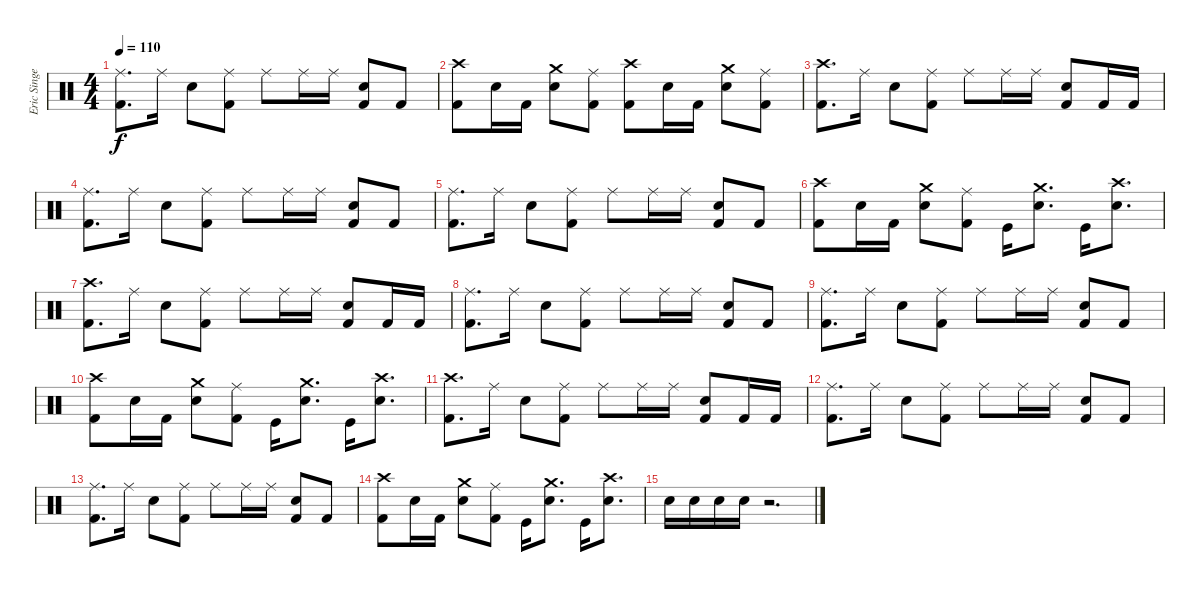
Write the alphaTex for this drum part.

\track ("Eric Singer" "Eric Singe") {instrument percussion}
\staff {score}
\articulation defaults
\ts (4 4)
\tempo 110
\clef neutral
\ks c
("Ride (middle)" "Kick (hit) 2").8{d dy f} "Ride (middle)".16 "Electric Snare (hit)".8 ("Ride (middle)" "Kick (hit) 2").8 "Ride (middle)".8 "Ride (middle)".16 "Ride (middle)".16 ("Electric Snare (hit)" "Kick (hit) 2").8 "Kick (hit) 2".8 |
("Crash high (hit)" "Kick (hit) 2").8 "Snare (hit) 2".16 "Kick (hit) 2".16 ("Crash medium (hit)" "Snare (hit) 2").8 ("Ride (middle)" "Kick (hit) 2").8 ("Crash high (hit)" "Kick (hit) 2").8 "Snare (hit) 2".16 "Kick (hit) 2".16 ("Crash medium (hit)" "Snare (hit) 2").8 ("Ride (middle)" "Kick (hit) 2").8 |
("Crash high (hit)" "Kick (hit) 2").8{d} "Ride (middle)".16 "Electric Snare (hit)".8 ("Ride (middle)" "Kick (hit) 2").8 "Ride (middle)".8 "Ride (middle)".16 "Ride (middle)".16 ("Electric Snare (hit)" "Kick (hit) 2").8 "Kick (hit) 2".16 "Kick (hit) 2".16 |
("Ride (middle)" "Kick (hit) 2").8{d} "Ride (middle)".16 "Electric Snare (hit)".8 ("Ride (middle)" "Kick (hit) 2").8 "Ride (middle)".8 "Ride (middle)".16 "Ride (middle)".16 ("Electric Snare (hit)" "Kick (hit) 2").8 "Kick (hit) 2".8 |
("Ride (middle)" "Kick (hit) 2").8{d} "Ride (middle)".16 "Electric Snare (hit)".8 ("Ride (middle)" "Kick (hit) 2").8 "Ride (middle)".8 "Ride (middle)".16 "Ride (middle)".16 ("Electric Snare (hit)" "Kick (hit) 2").8 "Kick (hit) 2".8 |
("Crash high (hit)" "Kick (hit) 2").8 "Snare (hit) 2".16 "Kick (hit) 2".16 ("Crash medium (hit)" "Snare (hit) 2").8 ("Ride (middle)" "Kick (hit) 2").8 "Kick (hit)".16 ("Crash medium (hit)" "Snare (hit) 2").8{d} "Kick (hit)".16 ("Crash high (hit)" "Snare (hit) 2").8{d} |
("Crash high (hit)" "Kick (hit) 2").8{d} "Ride (middle)".16 "Electric Snare (hit)".8 ("Ride (middle)" "Kick (hit) 2").8 "Ride (middle)".8 "Ride (middle)".16 "Ride (middle)".16 ("Electric Snare (hit)" "Kick (hit) 2").8 "Kick (hit) 2".16 "Kick (hit) 2".16 |
("Ride (middle)" "Kick (hit) 2").8{d} "Ride (middle)".16 "Electric Snare (hit)".8 ("Ride (middle)" "Kick (hit) 2").8 "Ride (middle)".8 "Ride (middle)".16 "Ride (middle)".16 ("Electric Snare (hit)" "Kick (hit) 2").8 "Kick (hit) 2".8 |
("Ride (middle)" "Kick (hit) 2").8{d} "Ride (middle)".16 "Electric Snare (hit)".8 ("Ride (middle)" "Kick (hit) 2").8 "Ride (middle)".8 "Ride (middle)".16 "Ride (middle)".16 ("Electric Snare (hit)" "Kick (hit) 2").8 "Kick (hit) 2".8 |
("Crash high (hit)" "Kick (hit) 2").8 "Snare (hit) 2".16 "Kick (hit) 2".16 ("Crash medium (hit)" "Snare (hit) 2").8 ("Ride (middle)" "Kick (hit) 2").8 "Kick (hit)".16 ("Crash medium (hit)" "Snare (hit) 2").8{d} "Kick (hit)".16 ("Crash high (hit)" "Snare (hit) 2").8{d} |
("Crash high (hit)" "Kick (hit) 2").8{d} "Ride (middle)".16 "Electric Snare (hit)".8 ("Ride (middle)" "Kick (hit) 2").8 "Ride (middle)".8 "Ride (middle)".16 "Ride (middle)".16 ("Electric Snare (hit)" "Kick (hit) 2").8 "Kick (hit) 2".16 "Kick (hit) 2".16 |
("Ride (middle)" "Kick (hit) 2").8{d} "Ride (middle)".16 "Electric Snare (hit)".8 ("Ride (middle)" "Kick (hit) 2").8 "Ride (middle)".8 "Ride (middle)".16 "Ride (middle)".16 ("Electric Snare (hit)" "Kick (hit) 2").8 "Kick (hit) 2".8 |
("Ride (middle)" "Kick (hit) 2").8{d} "Ride (middle)".16 "Electric Snare (hit)".8 ("Ride (middle)" "Kick (hit) 2").8 "Ride (middle)".8 "Ride (middle)".16 "Ride (middle)".16 ("Electric Snare (hit)" "Kick (hit) 2").8 "Kick (hit) 2".8 |
("Crash high (hit)" "Kick (hit) 2").8 "Snare (hit) 2".16 "Kick (hit) 2".16 ("Crash medium (hit)" "Snare (hit) 2").8 ("Ride (middle)" "Kick (hit) 2").8 "Kick (hit)".16 ("Crash medium (hit)" "Snare (hit) 2").8{d} "Kick (hit)".16 ("Crash high (hit)" "Snare (hit) 2").8{d} |
"Snare (hit) 2".16 "Snare (hit) 2".16 "Snare (hit) 2".16 "Snare (hit) 2".16 r.2{d}
